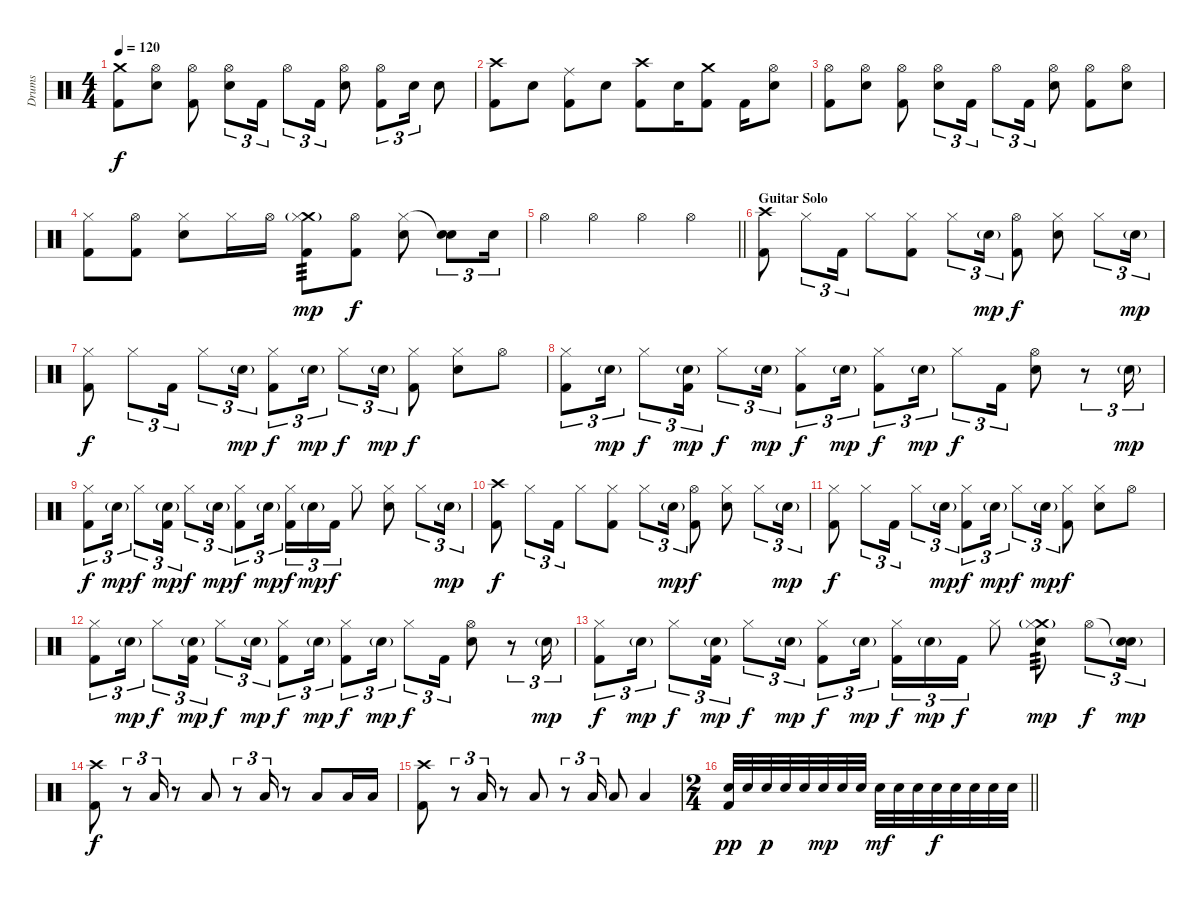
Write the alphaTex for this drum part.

\track ("Drums" "Drums") {instrument percussion}
\staff {score}
\articulation defaults
\ts (4 4)
\tempo 120
\clef neutral
\ks c
("Crash medium (hit)" "Kick (hit) 2").8{dy f} ("Hi-Hat (open)" "Electric Snare (hit)").8 ("Hi-Hat (open)" "Kick (hit) 2").8 ("Hi-Hat (open)" "Electric Snare (hit)").8{tu (3 2)} "Kick (hit) 2".16{tu (3 2)} "Hi-Hat (open)".8{tu (3 2)} "Kick (hit) 2".16{tu (3 2)} ("Hi-Hat (open)" "Electric Snare (hit)").8 ("Hi-Hat (open)" "Kick (hit) 2").8{tu (3 2)} "Electric Snare (hit)".16{tu (3 2)} "Electric Snare (hit)".8 |
("Crash high (hit)" "Kick (hit) 2").8 "Electric Snare (hit)".8 ("Ride (middle)" "Kick (hit) 2").8 "Electric Snare (hit)".8 ("Crash high (hit)" "Kick (hit) 2").8 "Electric Snare (hit)".16 ("Crash medium (hit)" "Kick (hit) 2").8 "Kick (hit) 2".16 ("Hi-Hat (open)" "Electric Snare (hit)").8 |
("Hi-Hat (open)" "Kick (hit) 2").8 ("Hi-Hat (open)" "Electric Snare (hit)").8 ("Hi-Hat (open)" "Kick (hit) 2").8 ("Hi-Hat (open)" "Electric Snare (hit)").8{tu (3 2)} "Kick (hit) 2".16{tu (3 2)} "Hi-Hat (open)".8{tu (3 2)} "Kick (hit) 2".16{tu (3 2)} ("Hi-Hat (open)" "Electric Snare (hit)").8 ("Hi-Hat (open)" "Kick (hit) 2").8 ("Hi-Hat (open)" "Electric Snare (hit)").8 |
("Hi-Hat (closed)" "Kick (hit) 2").8 ("Hi-Hat (open)" "Kick (hit) 2").8 ("Hi-Hat (closed)" "Electric Snare (hit)").8 "Hi-Hat (closed)".16 "Hi-Hat (open)".16 ("Crash medium (hit)"{g} "Hi-Hat (closed)" "Kick (hit) 2").8{tp 3 dy mp} ("Hi-Hat (open)" "Kick (hit) 2").8{dy f} ("Hi-Hat (closed)" "Electric Snare (hit)").8 ("Snare (hit)"{t} "Electric Snare (hit)").8{tu (3 2)} "Electric Snare (hit)".16{tu (3 2)} |
\barLineRight lightlight "Hi-Hat (open)".4 "Hi-Hat (open)".4 "Hi-Hat (open)".4 "Hi-Hat (open)".4
|
\section ("" "Guitar Solo")
("Crash high (hit)" "Kick (hit) 2").8 "Hi-Hat (closed)".8{tu (3 2)} "Kick (hit) 2".16{tu (3 2)} "Hi-Hat (closed)".8 ("Hi-Hat (closed)" "Kick (hit) 2").8 "Hi-Hat (closed)".8{tu (3 2)} "Electric Snare (hit)"{g}.16{tu (3 2) dy mp} ("Hi-Hat (open)" "Kick (hit) 2").8{dy f} ("Hi-Hat (closed)" "Electric Snare (hit)").8 "Hi-Hat (closed)".8{tu (3 2)} "Electric Snare (hit)"{g}.16{tu (3 2) dy mp} |
("Hi-Hat (closed)" "Kick (hit) 2").8{dy f} "Hi-Hat (closed)".8{tu (3 2)} "Kick (hit) 2".16{tu (3 2)} "Hi-Hat (closed)".8{tu (3 2)} "Electric Snare (hit)"{g}.16{tu (3 2) dy mp} ("Hi-Hat (closed)" "Kick (hit) 2").8{tu (3 2) dy f} "Electric Snare (hit)"{g}.16{tu (3 2) dy mp} "Hi-Hat (closed)".8{tu (3 2) dy f} "Electric Snare (hit)"{g}.16{tu (3 2) dy mp} ("Hi-Hat (closed)" "Kick (hit) 2").8{dy f} ("Hi-Hat (closed)" "Electric Snare (hit)").8 "Hi-Hat (open)".8 |
("Hi-Hat (closed)" "Kick (hit) 2").8{tu (3 2)} "Electric Snare (hit)"{g}.16{tu (3 2) dy mp} "Hi-Hat (closed)".8{tu (3 2) dy f} ("Electric Snare (hit)"{g} "Kick (hit) 2").16{tu (3 2) dy mp} "Hi-Hat (closed)".8{tu (3 2) dy f} "Electric Snare (hit)"{g}.16{tu (3 2) dy mp} ("Hi-Hat (closed)" "Kick (hit) 2").8{tu (3 2) dy f} "Electric Snare (hit)"{g}.16{tu (3 2) dy mp} ("Hi-Hat (closed)" "Kick (hit) 2").8{tu (3 2) dy f} "Electric Snare (hit)"{g}.16{tu (3 2) dy mp} "Hi-Hat (closed)".8{tu (3 2) dy f} "Kick (hit) 2".16{tu (3 2)} ("Hi-Hat (open)" "Electric Snare (hit)").8 r.8{tu (3 2)} "Electric Snare (hit)"{g}.16{tu (3 2) dy mp} |
("Hi-Hat (closed)" "Kick (hit) 2").8{tu (3 2) dy f} "Electric Snare (hit)"{g}.16{tu (3 2) dy mp} "Hi-Hat (closed)".8{tu (3 2) dy f} ("Electric Snare (hit)"{g} "Kick (hit) 2").16{tu (3 2) dy mp} "Hi-Hat (closed)".8{tu (3 2) dy f} "Electric Snare (hit)"{g}.16{tu (3 2) dy mp} ("Hi-Hat (closed)" "Kick (hit) 2").8{tu (3 2) dy f} "Electric Snare (hit)"{g}.16{tu (3 2) dy mp} ("Hi-Hat (closed)" "Kick (hit) 2").16{tu (3 2) dy f} "Electric Snare (hit)"{g}.16{tu (3 2) dy mp} "Kick (hit) 2".16{tu (3 2) dy f} "Hi-Hat (closed)".8 ("Hi-Hat (closed)" "Electric Snare (hit)").8 "Hi-Hat (closed)".8{tu (3 2)} "Electric Snare (hit)"{g}.16{tu (3 2) dy mp} |
("Crash high (hit)" "Kick (hit) 2").8{dy f} "Hi-Hat (closed)".8{tu (3 2)} "Kick (hit) 2".16{tu (3 2)} "Hi-Hat (closed)".8 ("Hi-Hat (closed)" "Kick (hit) 2").8 "Hi-Hat (closed)".8{tu (3 2)} "Electric Snare (hit)"{g}.16{tu (3 2) dy mp} ("Hi-Hat (open)" "Kick (hit) 2").8{dy f} ("Hi-Hat (closed)" "Electric Snare (hit)").8 "Hi-Hat (closed)".8{tu (3 2)} "Electric Snare (hit)"{g}.16{tu (3 2) dy mp} |
("Hi-Hat (closed)" "Kick (hit) 2").8{dy f} "Hi-Hat (closed)".8{tu (3 2)} "Kick (hit) 2".16{tu (3 2)} "Hi-Hat (closed)".8{tu (3 2)} "Electric Snare (hit)"{g}.16{tu (3 2) dy mp} ("Hi-Hat (closed)" "Kick (hit) 2").8{tu (3 2) dy f} "Electric Snare (hit)"{g}.16{tu (3 2) dy mp} "Hi-Hat (closed)".8{tu (3 2) dy f} "Electric Snare (hit)"{g}.16{tu (3 2) dy mp} ("Hi-Hat (closed)" "Kick (hit) 2").8{dy f} ("Hi-Hat (closed)" "Electric Snare (hit)").8 "Hi-Hat (open)".8 |
("Hi-Hat (closed)" "Kick (hit) 2").8{tu (3 2)} "Electric Snare (hit)"{g}.16{tu (3 2) dy mp} "Hi-Hat (closed)".8{tu (3 2) dy f} ("Electric Snare (hit)"{g} "Kick (hit) 2").16{tu (3 2) dy mp} "Hi-Hat (closed)".8{tu (3 2) dy f} "Electric Snare (hit)"{g}.16{tu (3 2) dy mp} ("Hi-Hat (closed)" "Kick (hit) 2").8{tu (3 2) dy f} "Electric Snare (hit)"{g}.16{tu (3 2) dy mp} ("Hi-Hat (closed)" "Kick (hit) 2").8{tu (3 2) dy f} "Electric Snare (hit)"{g}.16{tu (3 2) dy mp} "Hi-Hat (closed)".8{tu (3 2) dy f} "Kick (hit) 2".16{tu (3 2)} ("Hi-Hat (open)" "Electric Snare (hit)").8 r.8{tu (3 2)} "Electric Snare (hit)"{g}.16{tu (3 2) dy mp} |
("Hi-Hat (closed)" "Kick (hit) 2").8{tu (3 2) dy f} "Electric Snare (hit)"{g}.16{tu (3 2) dy mp} "Hi-Hat (closed)".8{tu (3 2) dy f} ("Electric Snare (hit)"{g} "Kick (hit) 2").16{tu (3 2) dy mp} "Hi-Hat (closed)".8{tu (3 2) dy f} "Electric Snare (hit)"{g}.16{tu (3 2) dy mp} ("Hi-Hat (closed)" "Kick (hit) 2").8{tu (3 2) dy f} "Electric Snare (hit)"{g}.16{tu (3 2) dy mp} ("Hi-Hat (closed)" "Kick (hit) 2").16{tu (3 2) dy f} "Electric Snare (hit)"{g}.16{tu (3 2) dy mp} "Kick (hit) 2".16{tu (3 2) dy f} "Hi-Hat (closed)".8 ("Crash medium (hit)"{g} "Hi-Hat (closed)" "Electric Snare (hit)").8{tp 3 dy mp} "Hi-Hat (open)".8{tu (3 2) dy f} ("Snare (hit)"{t} "Electric Snare (hit)"{g}).16{tu (3 2) dy mp} |
("Crash high (hit)" "Kick (hit) 2").8{dy f} r.8{tu (3 2)} "Low Tom (hit)".16{tu (3 2)} r.8 "Low Tom (hit)".8 r.8{tu (3 2)} "Low Tom (hit)".16{tu (3 2)} r.8 "Low Tom (hit)".8 "Low Tom (hit)".16 "Low Tom (hit)".16 |
("Crash high (hit)" "Kick (hit) 2").8 r.8{tu (3 2)} "Low Tom (hit)".16{tu (3 2)} r.8 "Low Tom (hit)".8 r.8{tu (3 2)} "Low Tom (hit)".16{tu (3 2)} "Low Tom (hit)".8 "Low Tom (hit)".4 |
\ts (2 4)
\barLineRight lightlight
("Electric Snare (hit)" "Kick (hit) 2").32{dy pp} "Electric Snare (hit)".32 "Electric Snare (hit)".32{dy p} "Electric Snare (hit)".32 "Electric Snare (hit)".32 "Electric Snare (hit)".32{dy mp} "Electric Snare (hit)".32 "Electric Snare (hit)".32 "Electric Snare (hit)".32{dy mf} "Electric Snare (hit)".32 "Electric Snare (hit)".32 "Electric Snare (hit)".32{dy f} "Electric Snare (hit)".32 "Electric Snare (hit)".32 "Electric Snare (hit)".32 "Electric Snare (hit)".32
